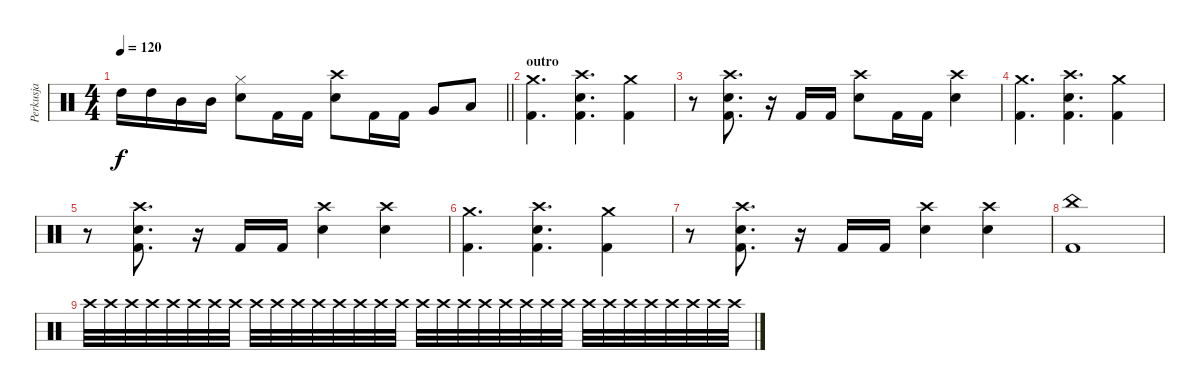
\track ("Perkusja" "Perkusja") {instrument percussion}
\staff {score}
\articulation defaults
\ts (4 4)
\tempo 120
\clef neutral
\barLineRight lightlight
\ks c "High Tom (hit)".16{dy f} "High Tom (hit)".16 "Mid Tom (hit)".16 "Mid Tom (hit)".16
("Hi-Hat (closed)" "Snare (hit) 2").8 "Kick (hit) 2".16 "Kick (hit) 2".16 ("Crash high (hit)" "Snare (hit) 2").8 "Kick (hit) 2".16 "Kick (hit) 2".16 "Very Low Tom (hit)".8 "Low Floor Tom (hit)".8 |
\section ("" "outro")
("Kick (hit) 2" "Crash medium (hit)").4{d} ("Kick (hit) 2" "Crash high (hit)" "Snare (hit) 2").4{d} ("Kick (hit) 2" "Crash medium (hit)").4 |
r.8 ("Kick (hit) 2" "Crash high (hit)" "Snare (hit) 2").8{d} r.16 "Kick (hit) 2".16 "Kick (hit) 2".16 ("Snare (hit) 2" "Crash high (hit)").8 "Kick (hit) 2".16 "Kick (hit) 2".16 ("Snare (hit) 2" "Crash high (hit)").4 |
("Kick (hit) 2" "Crash medium (hit)").4{d} ("Kick (hit) 2" "Crash high (hit)" "Snare (hit) 2").4{d} ("Kick (hit) 2" "Crash medium (hit)").4 |
r.8 ("Kick (hit) 2" "Crash high (hit)" "Snare (hit) 2").8{d} r.16 "Kick (hit) 2".16 "Kick (hit) 2".16 ("Snare (hit) 2" "Crash high (hit)").4 ("Snare (hit) 2" "Crash high (hit)").4 |
("Kick (hit) 2" "Crash medium (hit)").4{d} ("Kick (hit) 2" "Crash high (hit)" "Snare (hit) 2").4{d} ("Kick (hit) 2" "Crash medium (hit)").4 |
r.8 ("Kick (hit) 2" "Crash high (hit)" "Snare (hit) 2").8{d} r.16 "Kick (hit) 2".16 "Kick (hit) 2".16 ("Snare (hit) 2" "Crash high (hit)").4 ("Snare (hit) 2" "Crash high (hit)").4 |
("Kick (hit) 2" "China (hit)").1 |
"Crash high (hit)".32 "Crash high (hit)".32 "Crash high (hit)".32 "Crash high (hit)".32 "Crash high (hit)".32 "Crash high (hit)".32 "Crash high (hit)".32 "Crash high (hit)".32 "Crash high (hit)".32 "Crash high (hit)".32 "Crash high (hit)".32 "Crash high (hit)".32 "Crash high (hit)".32 "Crash high (hit)".32 "Crash high (hit)".32 "Crash high (hit)".32 "Crash high (hit)".32 "Crash high (hit)".32 "Crash high (hit)".32 "Crash high (hit)".32 "Crash high (hit)".32 "Crash high (hit)".32 "Crash high (hit)".32 "Crash high (hit)".32 "Crash high (hit)".32 "Crash high (hit)".32 "Crash high (hit)".32 "Crash high (hit)".32 "Crash high (hit)".32 "Crash high (hit)".32 "Crash high (hit)".32 "Crash high (hit)".32
